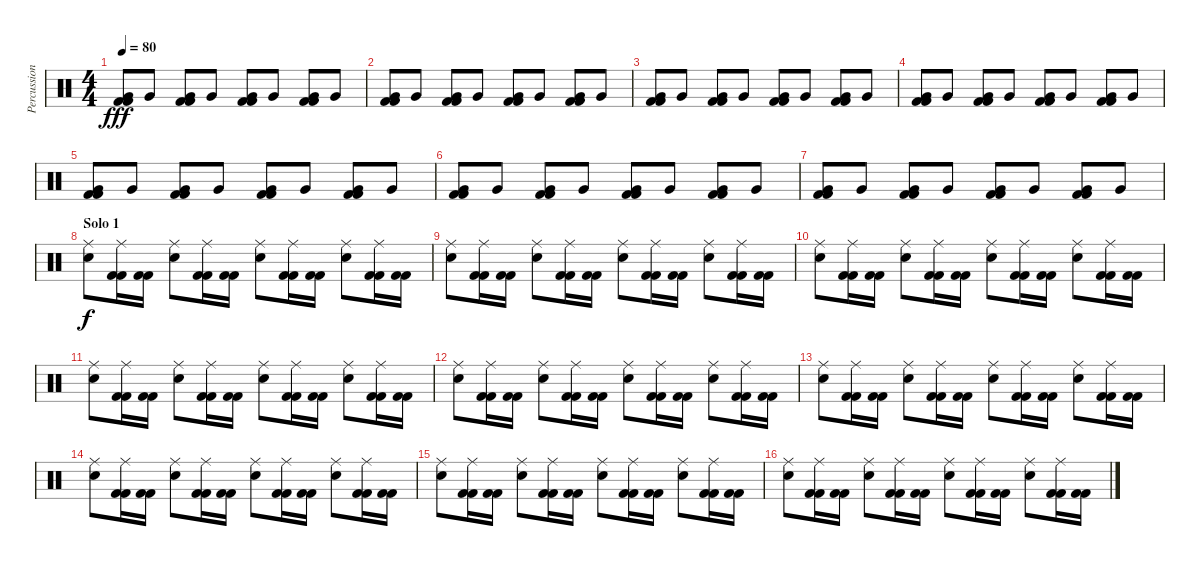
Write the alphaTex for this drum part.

\track ("Percussions" "Percussion") {instrument percussion}
\staff {score}
\articulation defaults
\ts (4 4)
\tempo 80
\clef neutral
\ks c
("Kick (hit) 2" "Kick (hit) 2" "Very Low Tom (hit)").8{dy fff} "Very Low Tom (hit)".8 ("Kick (hit) 2" "Kick (hit) 2" "Very Low Tom (hit)").8 "Very Low Tom (hit)".8 ("Kick (hit) 2" "Kick (hit) 2" "Very Low Tom (hit)").8 "Very Low Tom (hit)".8 ("Kick (hit) 2" "Kick (hit) 2" "Very Low Tom (hit)").8 "Very Low Tom (hit)".8 |
("Kick (hit) 2" "Kick (hit) 2" "Very Low Tom (hit)").8 "Very Low Tom (hit)".8 ("Kick (hit) 2" "Kick (hit) 2" "Very Low Tom (hit)").8 "Very Low Tom (hit)".8 ("Kick (hit) 2" "Kick (hit) 2" "Very Low Tom (hit)").8 "Very Low Tom (hit)".8 ("Kick (hit) 2" "Kick (hit) 2" "Very Low Tom (hit)").8 "Very Low Tom (hit)".8 |
("Kick (hit) 2" "Kick (hit) 2" "Very Low Tom (hit)").8 "Very Low Tom (hit)".8 ("Kick (hit) 2" "Kick (hit) 2" "Very Low Tom (hit)").8 "Very Low Tom (hit)".8 ("Kick (hit) 2" "Kick (hit) 2" "Very Low Tom (hit)").8 "Very Low Tom (hit)".8 ("Kick (hit) 2" "Kick (hit) 2" "Very Low Tom (hit)").8 "Very Low Tom (hit)".8 |
("Kick (hit) 2" "Kick (hit) 2" "Very Low Tom (hit)").8 "Very Low Tom (hit)".8 ("Kick (hit) 2" "Kick (hit) 2" "Very Low Tom (hit)").8 "Very Low Tom (hit)".8 ("Kick (hit) 2" "Kick (hit) 2" "Very Low Tom (hit)").8 "Very Low Tom (hit)".8 ("Kick (hit) 2" "Kick (hit) 2" "Very Low Tom (hit)").8 "Very Low Tom (hit)".8 |
("Kick (hit) 2" "Kick (hit) 2" "Very Low Tom (hit)").8 "Very Low Tom (hit)".8 ("Kick (hit) 2" "Kick (hit) 2" "Very Low Tom (hit)").8 "Very Low Tom (hit)".8 ("Kick (hit) 2" "Kick (hit) 2" "Very Low Tom (hit)").8 "Very Low Tom (hit)".8 ("Kick (hit) 2" "Kick (hit) 2" "Very Low Tom (hit)").8 "Very Low Tom (hit)".8 |
("Kick (hit) 2" "Kick (hit) 2" "Very Low Tom (hit)").8 "Very Low Tom (hit)".8 ("Kick (hit) 2" "Kick (hit) 2" "Very Low Tom (hit)").8 "Very Low Tom (hit)".8 ("Kick (hit) 2" "Kick (hit) 2" "Very Low Tom (hit)").8 "Very Low Tom (hit)".8 ("Kick (hit) 2" "Kick (hit) 2" "Very Low Tom (hit)").8 "Very Low Tom (hit)".8 |
("Kick (hit) 2" "Kick (hit) 2" "Very Low Tom (hit)").8 "Very Low Tom (hit)".8 ("Kick (hit) 2" "Kick (hit) 2" "Very Low Tom (hit)").8 "Very Low Tom (hit)".8 ("Kick (hit) 2" "Kick (hit) 2" "Very Low Tom (hit)").8 "Very Low Tom (hit)".8 ("Kick (hit) 2" "Kick (hit) 2" "Very Low Tom (hit)").8 "Very Low Tom (hit)".8 |
\section ("" "Solo 1")
("Snare (hit) 2" "Ride (middle)").8{dy f} ("Kick (hit) 2" "Kick (hit) 2" "Ride (middle)").16 ("Kick (hit) 2" "Kick (hit) 2").16 ("Snare (hit) 2" "Ride (middle)").8 ("Kick (hit) 2" "Kick (hit) 2" "Ride (middle)").16 ("Kick (hit) 2" "Kick (hit) 2").16 ("Snare (hit) 2" "Ride (middle)").8 ("Kick (hit) 2" "Kick (hit) 2" "Ride (middle)").16 ("Kick (hit) 2" "Kick (hit) 2").16 ("Snare (hit) 2" "Ride (middle)").8 ("Kick (hit) 2" "Kick (hit) 2" "Ride (middle)").16 ("Kick (hit) 2" "Kick (hit) 2").16 |
("Snare (hit) 2" "Ride (middle)").8 ("Kick (hit) 2" "Kick (hit) 2" "Ride (middle)").16 ("Kick (hit) 2" "Kick (hit) 2").16 ("Snare (hit) 2" "Ride (middle)").8 ("Kick (hit) 2" "Kick (hit) 2" "Ride (middle)").16 ("Kick (hit) 2" "Kick (hit) 2").16 ("Snare (hit) 2" "Ride (middle)").8 ("Kick (hit) 2" "Kick (hit) 2" "Ride (middle)").16 ("Kick (hit) 2" "Kick (hit) 2").16 ("Snare (hit) 2" "Ride (middle)").8 ("Kick (hit) 2" "Kick (hit) 2" "Ride (middle)").16 ("Kick (hit) 2" "Kick (hit) 2").16 |
("Snare (hit) 2" "Ride (middle)").8 ("Kick (hit) 2" "Kick (hit) 2" "Ride (middle)").16 ("Kick (hit) 2" "Kick (hit) 2").16 ("Snare (hit) 2" "Ride (middle)").8 ("Kick (hit) 2" "Kick (hit) 2" "Ride (middle)").16 ("Kick (hit) 2" "Kick (hit) 2").16 ("Snare (hit) 2" "Ride (middle)").8 ("Kick (hit) 2" "Kick (hit) 2" "Ride (middle)").16 ("Kick (hit) 2" "Kick (hit) 2").16 ("Snare (hit) 2" "Ride (middle)").8 ("Kick (hit) 2" "Kick (hit) 2" "Ride (middle)").16 ("Kick (hit) 2" "Kick (hit) 2").16 |
("Snare (hit) 2" "Ride (middle)").8 ("Kick (hit) 2" "Kick (hit) 2" "Ride (middle)").16 ("Kick (hit) 2" "Kick (hit) 2").16 ("Snare (hit) 2" "Ride (middle)").8 ("Kick (hit) 2" "Kick (hit) 2" "Ride (middle)").16 ("Kick (hit) 2" "Kick (hit) 2").16 ("Snare (hit) 2" "Ride (middle)").8 ("Kick (hit) 2" "Kick (hit) 2" "Ride (middle)").16 ("Kick (hit) 2" "Kick (hit) 2").16 ("Snare (hit) 2" "Ride (middle)").8 ("Kick (hit) 2" "Kick (hit) 2" "Ride (middle)").16 ("Kick (hit) 2" "Kick (hit) 2").16 |
("Snare (hit) 2" "Ride (middle)").8 ("Kick (hit) 2" "Kick (hit) 2" "Ride (middle)").16 ("Kick (hit) 2" "Kick (hit) 2").16 ("Snare (hit) 2" "Ride (middle)").8 ("Kick (hit) 2" "Kick (hit) 2" "Ride (middle)").16 ("Kick (hit) 2" "Kick (hit) 2").16 ("Snare (hit) 2" "Ride (middle)").8 ("Kick (hit) 2" "Kick (hit) 2" "Ride (middle)").16 ("Kick (hit) 2" "Kick (hit) 2").16 ("Snare (hit) 2" "Ride (middle)").8 ("Kick (hit) 2" "Kick (hit) 2" "Ride (middle)").16 ("Kick (hit) 2" "Kick (hit) 2").16 |
("Snare (hit) 2" "Ride (middle)").8 ("Kick (hit) 2" "Kick (hit) 2" "Ride (middle)").16 ("Kick (hit) 2" "Kick (hit) 2").16 ("Snare (hit) 2" "Ride (middle)").8 ("Kick (hit) 2" "Kick (hit) 2" "Ride (middle)").16 ("Kick (hit) 2" "Kick (hit) 2").16 ("Snare (hit) 2" "Ride (middle)").8 ("Kick (hit) 2" "Kick (hit) 2" "Ride (middle)").16 ("Kick (hit) 2" "Kick (hit) 2").16 ("Snare (hit) 2" "Ride (middle)").8 ("Kick (hit) 2" "Kick (hit) 2" "Ride (middle)").16 ("Kick (hit) 2" "Kick (hit) 2").16 |
("Snare (hit) 2" "Ride (middle)").8 ("Kick (hit) 2" "Kick (hit) 2" "Ride (middle)").16 ("Kick (hit) 2" "Kick (hit) 2").16 ("Snare (hit) 2" "Ride (middle)").8 ("Kick (hit) 2" "Kick (hit) 2" "Ride (middle)").16 ("Kick (hit) 2" "Kick (hit) 2").16 ("Snare (hit) 2" "Ride (middle)").8 ("Kick (hit) 2" "Kick (hit) 2" "Ride (middle)").16 ("Kick (hit) 2" "Kick (hit) 2").16 ("Snare (hit) 2" "Ride (middle)").8 ("Kick (hit) 2" "Kick (hit) 2" "Ride (middle)").16 ("Kick (hit) 2" "Kick (hit) 2").16 |
("Snare (hit) 2" "Ride (middle)").8 ("Kick (hit) 2" "Kick (hit) 2" "Ride (middle)").16 ("Kick (hit) 2" "Kick (hit) 2").16 ("Snare (hit) 2" "Ride (middle)").8 ("Kick (hit) 2" "Kick (hit) 2" "Ride (middle)").16 ("Kick (hit) 2" "Kick (hit) 2").16 ("Snare (hit) 2" "Ride (middle)").8 ("Kick (hit) 2" "Kick (hit) 2" "Ride (middle)").16 ("Kick (hit) 2" "Kick (hit) 2").16 ("Snare (hit) 2" "Ride (middle)").8 ("Kick (hit) 2" "Kick (hit) 2" "Ride (middle)").16 ("Kick (hit) 2" "Kick (hit) 2").16 |
("Snare (hit) 2" "Ride (middle)").8 ("Kick (hit) 2" "Kick (hit) 2" "Ride (middle)").16 ("Kick (hit) 2" "Kick (hit) 2").16 ("Snare (hit) 2" "Ride (middle)").8 ("Kick (hit) 2" "Kick (hit) 2" "Ride (middle)").16 ("Kick (hit) 2" "Kick (hit) 2").16 ("Snare (hit) 2" "Ride (middle)").8 ("Kick (hit) 2" "Kick (hit) 2" "Ride (middle)").16 ("Kick (hit) 2" "Kick (hit) 2").16 ("Snare (hit) 2" "Ride (middle)").8 ("Kick (hit) 2" "Kick (hit) 2" "Ride (middle)").16 ("Kick (hit) 2" "Kick (hit) 2").16
